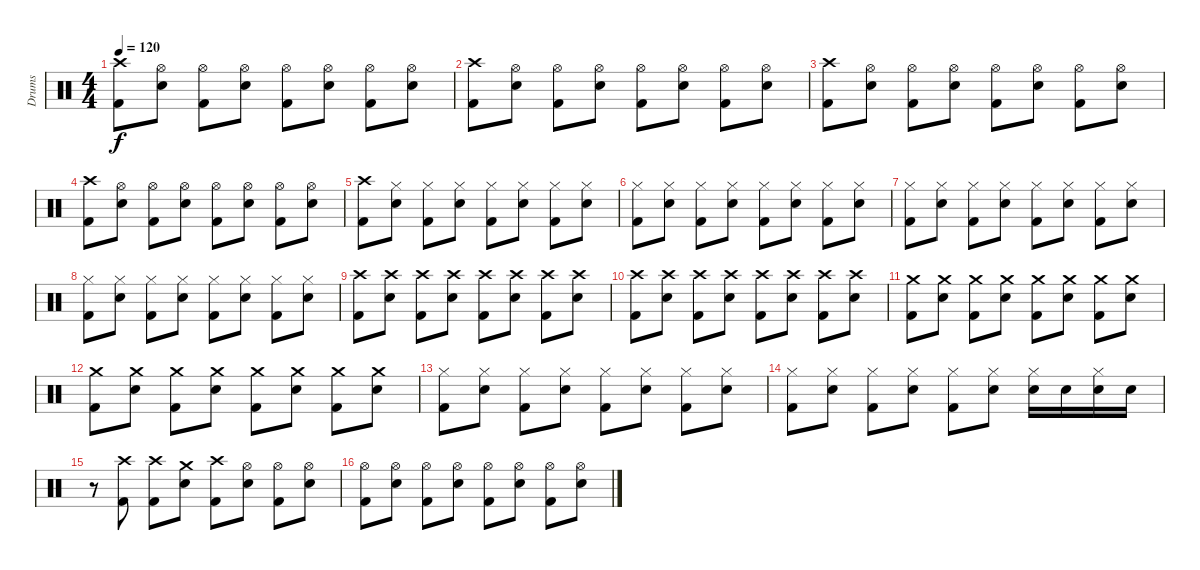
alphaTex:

\track ("Drums" "Drums") {instrument percussion}
\staff {score}
\articulation defaults
\ts (4 4)
\tempo 120
\clef neutral
\ks c
("Crash high (hit)" "Kick (hit) 2").8{dy f volume 16} ("Hi-Hat (open)" "Snare (hit) 2").8 ("Hi-Hat (open)" "Kick (hit) 2").8 ("Hi-Hat (open)" "Snare (hit) 2").8 ("Hi-Hat (open)" "Kick (hit) 2").8 ("Hi-Hat (open)" "Snare (hit) 2").8 ("Hi-Hat (open)" "Kick (hit) 2").8 ("Hi-Hat (open)" "Snare (hit) 2").8 |
("Crash high (hit)" "Kick (hit) 2").8{volume 16} ("Hi-Hat (open)" "Snare (hit) 2").8 ("Hi-Hat (open)" "Kick (hit) 2").8 ("Hi-Hat (open)" "Snare (hit) 2").8 ("Hi-Hat (open)" "Kick (hit) 2").8 ("Hi-Hat (open)" "Snare (hit) 2").8 ("Hi-Hat (open)" "Kick (hit) 2").8 ("Hi-Hat (open)" "Snare (hit) 2").8 |
("Crash high (hit)" "Kick (hit) 2").8{volume 16} ("Hi-Hat (open)" "Snare (hit) 2").8 ("Hi-Hat (open)" "Kick (hit) 2").8 ("Hi-Hat (open)" "Snare (hit) 2").8 ("Hi-Hat (open)" "Kick (hit) 2").8 ("Hi-Hat (open)" "Snare (hit) 2").8 ("Hi-Hat (open)" "Kick (hit) 2").8 ("Hi-Hat (open)" "Snare (hit) 2").8 |
("Crash high (hit)" "Kick (hit) 2").8{volume 16} ("Hi-Hat (open)" "Snare (hit) 2").8 ("Hi-Hat (open)" "Kick (hit) 2").8 ("Hi-Hat (open)" "Snare (hit) 2").8 ("Hi-Hat (open)" "Kick (hit) 2").8 ("Hi-Hat (open)" "Snare (hit) 2").8 ("Hi-Hat (open)" "Kick (hit) 2").8 ("Hi-Hat (open)" "Snare (hit) 2").8 |
("Crash high (hit)" "Kick (hit) 2").8{volume 16} ("Hi-Hat (closed)" "Snare (hit) 2").8 ("Hi-Hat (closed)" "Kick (hit) 2").8 ("Hi-Hat (closed)" "Snare (hit) 2").8 ("Hi-Hat (closed)" "Kick (hit) 2").8 ("Hi-Hat (closed)" "Snare (hit) 2").8 ("Hi-Hat (closed)" "Kick (hit) 2").8 ("Hi-Hat (closed)" "Snare (hit) 2").8 |
("Hi-Hat (closed)" "Kick (hit) 2").8{volume 16} ("Hi-Hat (closed)" "Snare (hit) 2").8 ("Hi-Hat (closed)" "Kick (hit) 2").8 ("Hi-Hat (closed)" "Snare (hit) 2").8 ("Hi-Hat (closed)" "Kick (hit) 2").8 ("Hi-Hat (closed)" "Snare (hit) 2").8 ("Hi-Hat (closed)" "Kick (hit) 2").8 ("Hi-Hat (closed)" "Snare (hit) 2").8 |
("Hi-Hat (closed)" "Kick (hit) 2").8{volume 16} ("Hi-Hat (closed)" "Snare (hit) 2").8 ("Hi-Hat (closed)" "Kick (hit) 2").8 ("Hi-Hat (closed)" "Snare (hit) 2").8 ("Hi-Hat (closed)" "Kick (hit) 2").8 ("Hi-Hat (closed)" "Snare (hit) 2").8 ("Hi-Hat (closed)" "Kick (hit) 2").8 ("Hi-Hat (closed)" "Snare (hit) 2").8 |
("Hi-Hat (closed)" "Kick (hit) 2").8{volume 16} ("Hi-Hat (closed)" "Snare (hit) 2").8 ("Hi-Hat (closed)" "Kick (hit) 2").8 ("Hi-Hat (closed)" "Snare (hit) 2").8 ("Hi-Hat (closed)" "Kick (hit) 2").8 ("Hi-Hat (closed)" "Snare (hit) 2").8 ("Hi-Hat (closed)" "Kick (hit) 2").8 ("Hi-Hat (closed)" "Snare (hit) 2").8 |
("Crash high (hit)" "Kick (hit) 2").8{volume 16} ("Crash high (hit)" "Snare (hit) 2").8 ("Crash high (hit)" "Kick (hit) 2").8 ("Crash high (hit)" "Snare (hit) 2").8 ("Crash high (hit)" "Kick (hit) 2").8 ("Crash high (hit)" "Snare (hit) 2").8 ("Crash high (hit)" "Kick (hit) 2").8 ("Crash high (hit)" "Snare (hit) 2").8 |
("Crash high (hit)" "Kick (hit) 2").8{volume 16} ("Crash high (hit)" "Snare (hit) 2").8 ("Crash high (hit)" "Kick (hit) 2").8 ("Crash high (hit)" "Snare (hit) 2").8 ("Crash high (hit)" "Kick (hit) 2").8 ("Crash high (hit)" "Snare (hit) 2").8 ("Crash high (hit)" "Kick (hit) 2").8 ("Crash high (hit)" "Snare (hit) 2").8 |
("Crash medium (hit)" "Kick (hit) 2").8{volume 16} ("Crash medium (hit)" "Snare (hit) 2").8 ("Crash medium (hit)" "Kick (hit) 2").8 ("Crash medium (hit)" "Snare (hit) 2").8 ("Crash medium (hit)" "Kick (hit) 2").8 ("Crash medium (hit)" "Snare (hit) 2").8 ("Crash medium (hit)" "Kick (hit) 2").8 ("Crash medium (hit)" "Snare (hit) 2").8 |
("Crash medium (hit)" "Kick (hit) 2").8{volume 16} ("Crash medium (hit)" "Snare (hit) 2").8 ("Crash medium (hit)" "Kick (hit) 2").8 ("Crash medium (hit)" "Snare (hit) 2").8 ("Crash medium (hit)" "Kick (hit) 2").8 ("Crash medium (hit)" "Snare (hit) 2").8 ("Crash medium (hit)" "Kick (hit) 2").8 ("Crash medium (hit)" "Snare (hit) 2").8 |
("Hi-Hat (closed)" "Kick (hit) 2").8{volume 16} ("Hi-Hat (closed)" "Snare (hit) 2").8 ("Hi-Hat (closed)" "Kick (hit) 2").8 ("Hi-Hat (closed)" "Snare (hit) 2").8 ("Hi-Hat (closed)" "Kick (hit) 2").8 ("Hi-Hat (closed)" "Snare (hit) 2").8 ("Hi-Hat (closed)" "Kick (hit) 2").8 ("Hi-Hat (closed)" "Snare (hit) 2").8 |
("Hi-Hat (closed)" "Kick (hit) 2").8{volume 16} ("Hi-Hat (closed)" "Snare (hit) 2").8 ("Hi-Hat (closed)" "Kick (hit) 2").8 ("Hi-Hat (closed)" "Snare (hit) 2").8 ("Hi-Hat (closed)" "Kick (hit) 2").8 ("Hi-Hat (closed)" "Snare (hit) 2").8 ("Hi-Hat (closed)" "Snare (hit) 2").16 "Snare (hit) 2".16 ("Hi-Hat (closed)" "Snare (hit) 2").16 "Snare (hit) 2".16 |
r.8 ("Crash high (hit)" "Kick (hit) 2").8 ("Crash high (hit)" "Kick (hit) 2").8 ("Crash medium (hit)" "Snare (hit) 2").8 ("Crash high (hit)" "Kick (hit) 2").8 ("Hi-Hat (open)" "Snare (hit) 2").8 ("Hi-Hat (open)" "Kick (hit) 2").8 ("Hi-Hat (open)" "Snare (hit) 2").8 |
("Hi-Hat (open)" "Kick (hit) 2").8{volume 16} ("Hi-Hat (open)" "Snare (hit) 2").8 ("Hi-Hat (open)" "Kick (hit) 2").8 ("Hi-Hat (open)" "Snare (hit) 2").8 ("Hi-Hat (open)" "Kick (hit) 2").8 ("Hi-Hat (open)" "Snare (hit) 2").8 ("Hi-Hat (open)" "Kick (hit) 2").8 ("Hi-Hat (open)" "Snare (hit) 2").8
